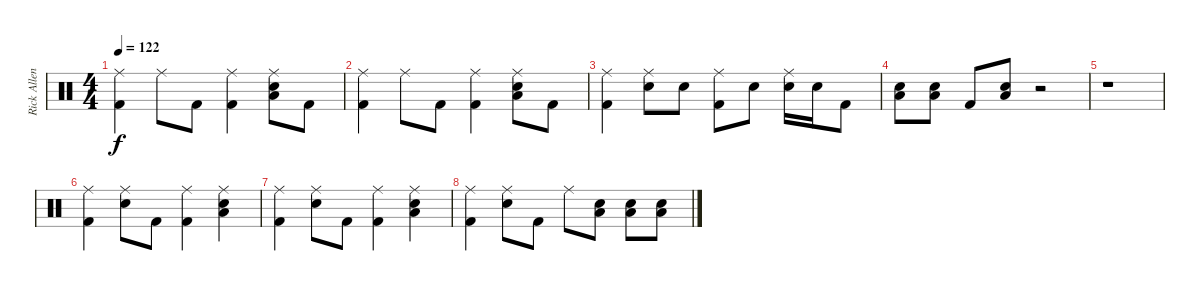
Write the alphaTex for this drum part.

\track ("Rick Allen" "Rick Allen") {instrument percussion}
\staff {score}
\articulation defaults
\ts (4 4)
\tempo 122
\clef neutral
\ks c
("Ride (middle)" "Kick (hit) 2").4{dy f} "Ride (middle)".8 "Kick (hit) 2".8 ("Ride (middle)" "Kick (hit) 2").4 ("Ride (middle)" "Low Tom (hit)" "Electric Snare (hit)").8 "Kick (hit) 2".8 |
("Ride (middle)" "Kick (hit) 2").4 "Ride (middle)".8 "Kick (hit) 2".8 ("Ride (middle)" "Kick (hit) 2").4 ("Ride (middle)" "Low Tom (hit)" "Electric Snare (hit)").8 "Kick (hit) 2".8 |
("Ride (middle)" "Kick (hit) 2").4 ("Ride (middle)" "Electric Snare (hit)").8 "Electric Snare (hit)".8 ("Ride (middle)" "Kick (hit) 2").8 "Electric Snare (hit)".8 ("Ride (middle)" "Electric Snare (hit)").16 "Electric Snare (hit)".16 "Kick (hit) 2".8 |
("Low Tom (hit)" "Electric Snare (hit)").8 ("Low Tom (hit)" "Electric Snare (hit)").8 "Kick (hit) 2".8 ("Low Tom (hit)" "Electric Snare (hit)").8 r.2 |
r.1 |
("Ride (middle)" "Kick (hit) 2").4 ("Ride (middle)" "Electric Snare (hit)").8 "Kick (hit) 2".8 ("Ride (middle)" "Kick (hit) 2").4 ("Ride (middle)" "Low Tom (hit)" "Electric Snare (hit)").4 |
("Ride (middle)" "Kick (hit) 2").4 ("Ride (middle)" "Electric Snare (hit)").8 "Kick (hit) 2".8 ("Ride (middle)" "Kick (hit) 2").4 ("Ride (middle)" "Low Tom (hit)" "Electric Snare (hit)").4 |
("Ride (middle)" "Kick (hit) 2").4 ("Ride (middle)" "Electric Snare (hit)").8 "Kick (hit) 2".8 "Ride (middle)".8 ("Low Tom (hit)" "Electric Snare (hit)").8 ("Low Tom (hit)" "Electric Snare (hit)").8 ("Low Tom (hit)" "Electric Snare (hit)").8
